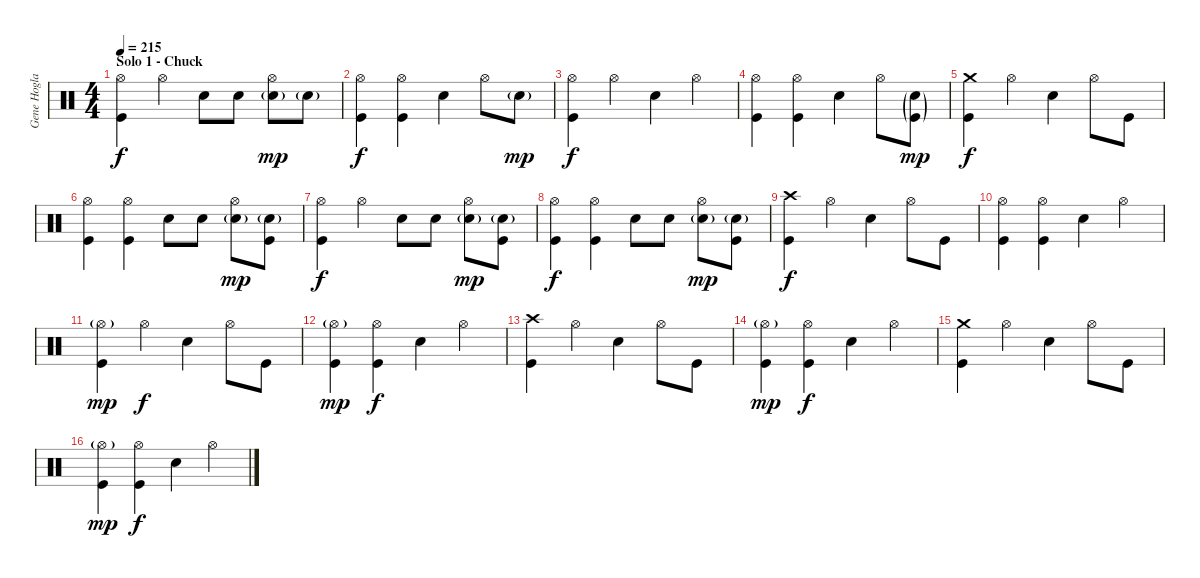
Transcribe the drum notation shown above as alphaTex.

\track ("Gene Hoglan" "Gene Hogla") {instrument percussion}
\staff {score}
\articulation defaults
\ts (4 4)
\section ("" "Solo 1 - Chuck")
\tempo 215
\clef neutral
\ks c
("Hi-Hat (open)" "Kick (hit)").4{dy f} "Hi-Hat (open)".4 "Electric Snare (hit)".8 "Electric Snare (hit)".8 ("Hi-Hat (open)" "Electric Snare (hit)"{g}).8{dy mp} "Electric Snare (hit)"{g}.8 |
("Hi-Hat (open)" "Kick (hit)").4{dy f} ("Hi-Hat (open)" "Kick (hit)").4 "Electric Snare (hit)".4 "Hi-Hat (open)".8 "Electric Snare (hit)"{g}.8{dy mp} |
("Hi-Hat (open)" "Kick (hit)").4{dy f} "Hi-Hat (open)".4 "Electric Snare (hit)".4 "Hi-Hat (open)".4 |
("Hi-Hat (open)" "Kick (hit)").4 ("Hi-Hat (open)" "Kick (hit)").4 "Electric Snare (hit)".4 "Hi-Hat (open)".8 ("Electric Snare (hit)"{g} "Kick (hit)"{g}).8{dy mp} |
("Crash medium (hit)" "Kick (hit)").4{dy f} "Hi-Hat (open)".4 "Electric Snare (hit)".4 "Hi-Hat (open)".8 "Kick (hit)".8 |
("Hi-Hat (open)" "Kick (hit)").4 ("Hi-Hat (open)" "Kick (hit)").4 "Electric Snare (hit)".8 "Electric Snare (hit)".8 ("Hi-Hat (open)" "Electric Snare (hit)"{g}).8{dy mp} ("Electric Snare (hit)"{g} "Kick (hit)").8 |
("Hi-Hat (open)" "Kick (hit)").4{dy f} "Hi-Hat (open)".4 "Electric Snare (hit)".8 "Electric Snare (hit)".8 ("Hi-Hat (open)" "Electric Snare (hit)"{g}).8{dy mp} ("Electric Snare (hit)"{g} "Kick (hit)").8 |
("Hi-Hat (open)" "Kick (hit)").4{dy f} ("Hi-Hat (open)" "Kick (hit)").4 "Electric Snare (hit)".8 "Electric Snare (hit)".8 ("Hi-Hat (open)" "Electric Snare (hit)"{g}).8{dy mp} ("Electric Snare (hit)"{g} "Kick (hit)").8 |
("Crash high (hit)" "Kick (hit)").4{dy f} "Hi-Hat (open)".4 "Electric Snare (hit)".4 "Hi-Hat (open)".8 "Kick (hit)".8 |
("Hi-Hat (open)" "Kick (hit)").4 ("Hi-Hat (open)" "Kick (hit)").4 "Electric Snare (hit)".4 "Hi-Hat (open)".4 |
("Hi-Hat (open)"{g} "Kick (hit)").4{dy mp} "Hi-Hat (open)".4{dy f} "Electric Snare (hit)".4 "Hi-Hat (open)".8 "Kick (hit)".8 |
("Hi-Hat (open)"{g} "Kick (hit)").4{dy mp} ("Hi-Hat (open)" "Kick (hit)").4{dy f} "Electric Snare (hit)".4 "Hi-Hat (open)".4 |
("Crash high (hit)" "Kick (hit)").4 "Hi-Hat (open)".4 "Electric Snare (hit)".4 "Hi-Hat (open)".8 "Kick (hit)".8 |
("Hi-Hat (open)"{g} "Kick (hit)").4{dy mp} ("Hi-Hat (open)" "Kick (hit)").4{dy f} "Electric Snare (hit)".4 "Hi-Hat (open)".4 |
("Crash medium (hit)" "Kick (hit)").4 "Hi-Hat (open)".4 "Electric Snare (hit)".4 "Hi-Hat (open)".8 "Kick (hit)".8 |
("Hi-Hat (open)"{g} "Kick (hit)").4{dy mp} ("Hi-Hat (open)" "Kick (hit)").4{dy f} "Electric Snare (hit)".4 "Hi-Hat (open)".4
